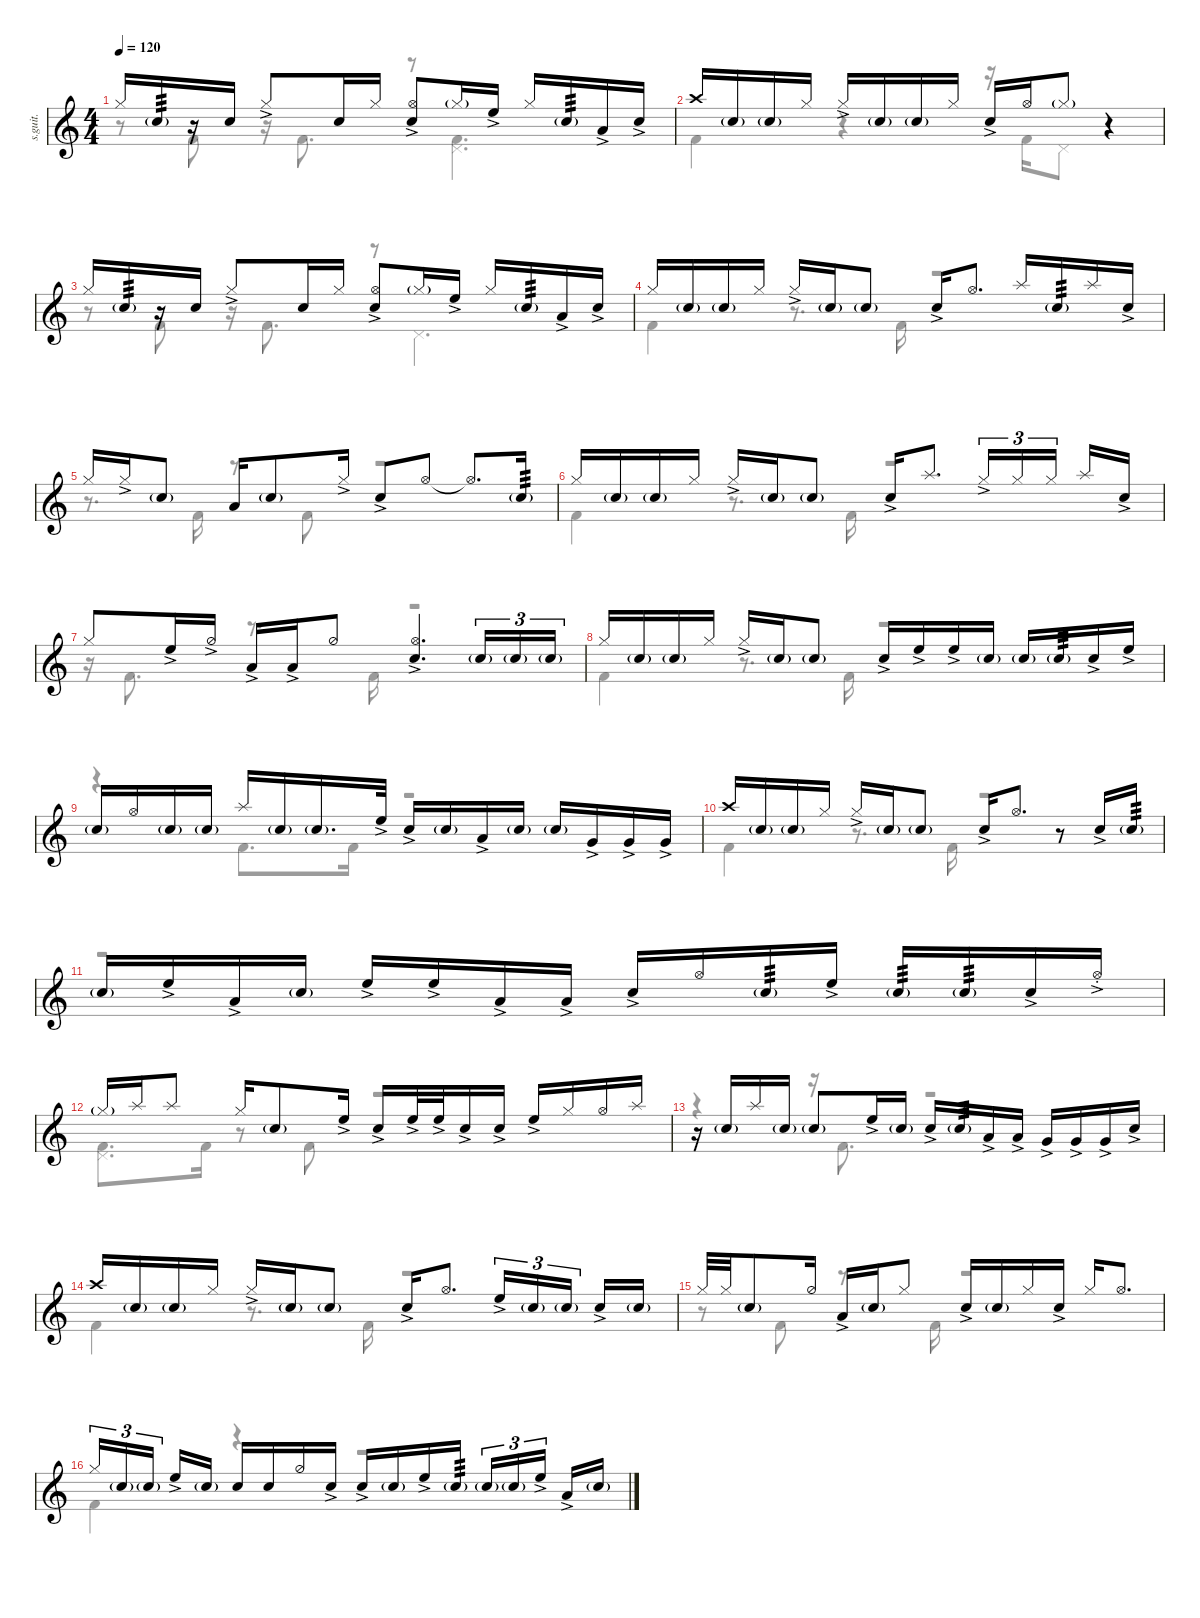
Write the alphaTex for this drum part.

\defaultSystemsLayout 4
\hideDynamics
\bracketExtendMode nobrackets
\track ("Matt Halpern" "s.guit.") {instrument percussion}
\staff {score}
\articulation defaults
\voice
\ts (4 4)
\tempo 120
\clef g2
\ks c "Hi-Hat (closed)".16{lyrics (0 "") lyrics (1 "") lyrics (2 "") lyrics (3 "") lyrics (4 "") dy mf} "Snare (hit) 2"{g}.16{lyrics (0 "") lyrics (1 "") lyrics (2 "") lyrics (3 "") lyrics (4 "") tp 3}
r.16 "Snare (hit) 2".16{lyrics (0 "") lyrics (1 "") lyrics (2 "") lyrics (3 "") lyrics (4 "")} "Hi-Hat (closed)"{ac}.8{lyrics (0 "") lyrics (1 "") lyrics (2 "") lyrics (3 "") lyrics (4 "")} "Snare (hit) 2".16{lyrics (0 "") lyrics (1 "") lyrics (2 "") lyrics (3 "") lyrics (4 "")} "Hi-Hat (closed)".16{lyrics (0 "") lyrics (1 "") lyrics (2 "") lyrics (3 "") lyrics (4 "")} ("Hi-Hat (open)" "Snare (hit) 2"{ac}).8{lyrics (0 "") lyrics (1 "") lyrics (2 "") lyrics (3 "") lyrics (4 "")} "Hi-Hat (closed)"{g}.16{lyrics (0 "") lyrics (1 "") lyrics (2 "") lyrics (3 "") lyrics (4 "")} "High Floor Tom (hit)"{ac}.16{lyrics (0 "") lyrics (1 "") lyrics (2 "") lyrics (3 "") lyrics (4 "")} "Hi-Hat (closed)".16{lyrics (0 "") lyrics (1 "") lyrics (2 "") lyrics (3 "") lyrics (4 "")} "Snare (hit) 2"{g}.16{lyrics (0 "") lyrics (1 "") lyrics (2 "") lyrics (3 "") lyrics (4 "") tp 3} "Low Tom (hit)"{ac}.16{lyrics (0 "") lyrics (1 "") lyrics (2 "") lyrics (3 "") lyrics (4 "")} "Snare (hit) 2"{ac}.16{lyrics (0 "") lyrics (1 "") lyrics (2 "") lyrics (3 "") lyrics (4 "")} |
"Crash high (hit)".16{lyrics (0 "") lyrics (1 "") lyrics (2 "") lyrics (3 "") lyrics (4 "")} "Snare (hit) 2"{g}.16{lyrics (0 "") lyrics (1 "") lyrics (2 "") lyrics (3 "") lyrics (4 "")} "Snare (hit) 2"{g}.16{lyrics (0 "") lyrics (1 "") lyrics (2 "") lyrics (3 "") lyrics (4 "")} "Hi-Hat (closed)".16{lyrics (0 "") lyrics (1 "") lyrics (2 "") lyrics (3 "") lyrics (4 "")} "Hi-Hat (closed)"{ac}.16{lyrics (0 "") lyrics (1 "") lyrics (2 "") lyrics (3 "") lyrics (4 "")} "Snare (hit) 2"{g}.16{lyrics (0 "") lyrics (1 "") lyrics (2 "") lyrics (3 "") lyrics (4 "")} "Snare (hit) 2"{g}.16{lyrics (0 "") lyrics (1 "") lyrics (2 "") lyrics (3 "") lyrics (4 "")} "Hi-Hat (closed)".16{lyrics (0 "") lyrics (1 "") lyrics (2 "") lyrics (3 "") lyrics (4 "")} "Snare (hit) 2"{ac}.16{lyrics (0 "") lyrics (1 "") lyrics (2 "") lyrics (3 "") lyrics (4 "")} "Hi-Hat (open)".16{lyrics (0 "") lyrics (1 "") lyrics (2 "") lyrics (3 "") lyrics (4 "")} "Hi-Hat (closed)"{g}.8{lyrics (0 "") lyrics (1 "") lyrics (2 "") lyrics (3 "") lyrics (4 "")} r.4 |
"Hi-Hat (closed)".16{lyrics (0 "") lyrics (1 "") lyrics (2 "") lyrics (3 "") lyrics (4 "")} "Snare (hit) 2"{g}.16{lyrics (0 "") lyrics (1 "") lyrics (2 "") lyrics (3 "") lyrics (4 "") tp 3} r.16 "Snare (hit) 2".16{lyrics (0 "") lyrics (1 "") lyrics (2 "") lyrics (3 "") lyrics (4 "")} "Hi-Hat (closed)"{ac}.8{lyrics (0 "") lyrics (1 "") lyrics (2 "") lyrics (3 "") lyrics (4 "")} "Snare (hit) 2".16{lyrics (0 "") lyrics (1 "") lyrics (2 "") lyrics (3 "") lyrics (4 "")} "Hi-Hat (closed)".16{lyrics (0 "") lyrics (1 "") lyrics (2 "") lyrics (3 "") lyrics (4 "")} ("Hi-Hat (open)" "Snare (hit) 2"{ac}).8{lyrics (0 "") lyrics (1 "") lyrics (2 "") lyrics (3 "") lyrics (4 "")} "Hi-Hat (closed)"{g}.16{lyrics (0 "") lyrics (1 "") lyrics (2 "") lyrics (3 "") lyrics (4 "")} "High Floor Tom (hit)"{ac}.16{lyrics (0 "") lyrics (1 "") lyrics (2 "") lyrics (3 "") lyrics (4 "")} "Hi-Hat (closed)".16{lyrics (0 "") lyrics (1 "") lyrics (2 "") lyrics (3 "") lyrics (4 "")} "Snare (hit) 2"{g}.16{lyrics (0 "") lyrics (1 "") lyrics (2 "") lyrics (3 "") lyrics (4 "") tp 3} "Low Tom (hit)"{ac}.16{lyrics (0 "") lyrics (1 "") lyrics (2 "") lyrics (3 "") lyrics (4 "")} "Snare (hit) 2"{ac}.16{lyrics (0 "") lyrics (1 "") lyrics (2 "") lyrics (3 "") lyrics (4 "")} |
"Hi-Hat (closed)".16{lyrics (0 "") lyrics (1 "") lyrics (2 "") lyrics (3 "") lyrics (4 "")} "Snare (hit) 2"{g}.16{lyrics (0 "") lyrics (1 "") lyrics (2 "") lyrics (3 "") lyrics (4 "")} "Snare (hit) 2"{g}.16{lyrics (0 "") lyrics (1 "") lyrics (2 "") lyrics (3 "") lyrics (4 "")} "Hi-Hat (closed)".16{lyrics (0 "") lyrics (1 "") lyrics (2 "") lyrics (3 "") lyrics (4 "")} "Hi-Hat (closed)"{ac}.16{lyrics (0 "") lyrics (1 "") lyrics (2 "") lyrics (3 "") lyrics (4 "")} "Snare (hit) 2"{g}.16{lyrics (0 "") lyrics (1 "") lyrics (2 "") lyrics (3 "") lyrics (4 "")} "Snare (hit) 2"{g}.8{lyrics (0 "") lyrics (1 "") lyrics (2 "") lyrics (3 "") lyrics (4 "")} "Snare (hit) 2"{ac}.16{lyrics (0 "") lyrics (1 "") lyrics (2 "") lyrics (3 "") lyrics (4 "")} "Hi-Hat (open)".8{d lyrics (0 "") lyrics (1 "") lyrics (2 "") lyrics (3 "") lyrics (4 "")} "Splash (hit)".16{lyrics (0 "") lyrics (1 "") lyrics (2 "") lyrics (3 "") lyrics (4 "")} "Snare (hit) 2"{g}.16{lyrics (0 "") lyrics (1 "") lyrics (2 "") lyrics (3 "") lyrics (4 "") tp 3} "Splash (hit)".16{lyrics (0 "") lyrics (1 "") lyrics (2 "") lyrics (3 "") lyrics (4 "")} "Snare (hit) 2"{ac}.16{lyrics (0 "") lyrics (1 "") lyrics (2 "") lyrics (3 "") lyrics (4 "")} |
"Hi-Hat (closed)".16{lyrics (0 "") lyrics (1 "") lyrics (2 "") lyrics (3 "") lyrics (4 "")} "Hi-Hat (closed)"{ac}.16{lyrics (0 "") lyrics (1 "") lyrics (2 "") lyrics (3 "") lyrics (4 "")} "Snare (hit) 2"{g}.8{lyrics (0 "") lyrics (1 "") lyrics (2 "") lyrics (3 "") lyrics (4 "")} "Low Tom (hit)".16{lyrics (0 "") lyrics (1 "") lyrics (2 "") lyrics (3 "") lyrics (4 "")} "Snare (hit) 2"{g}.8{lyrics (0 "") lyrics (1 "") lyrics (2 "") lyrics (3 "") lyrics (4 "")} "Hi-Hat (closed)"{ac}.16{lyrics (0 "") lyrics (1 "") lyrics (2 "") lyrics (3 "") lyrics (4 "")} "Snare (hit) 2"{ac}.8{lyrics (0 "") lyrics (1 "") lyrics (2 "") lyrics (3 "") lyrics (4 "")} "Hi-Hat (open)".8{lyrics (0 "") lyrics (1 "") lyrics (2 "") lyrics (3 "") lyrics (4 "")} "Hi-Hat (open)"{t}.8{d lyrics (0 "") lyrics (1 "") lyrics (2 "") lyrics (3 "") lyrics (4 "")} "Snare (hit) 2"{g}.16{lyrics (0 "") lyrics (1 "") lyrics (2 "") lyrics (3 "") lyrics (4 "") tp 3} |
"Hi-Hat (closed)".16{lyrics (0 "") lyrics (1 "") lyrics (2 "") lyrics (3 "") lyrics (4 "")} "Snare (hit) 2"{g}.16{lyrics (0 "") lyrics (1 "") lyrics (2 "") lyrics (3 "") lyrics (4 "")} "Snare (hit) 2"{g}.16{lyrics (0 "") lyrics (1 "") lyrics (2 "") lyrics (3 "") lyrics (4 "")} "Hi-Hat (closed)".16{lyrics (0 "") lyrics (1 "") lyrics (2 "") lyrics (3 "") lyrics (4 "")} "Hi-Hat (closed)"{ac}.16{lyrics (0 "") lyrics (1 "") lyrics (2 "") lyrics (3 "") lyrics (4 "")} "Snare (hit) 2"{g}.16{lyrics (0 "") lyrics (1 "") lyrics (2 "") lyrics (3 "") lyrics (4 "")} "Snare (hit) 2"{g}.8{lyrics (0 "") lyrics (1 "") lyrics (2 "") lyrics (3 "") lyrics (4 "")} "Snare (hit) 2"{ac}.16{lyrics (0 "") lyrics (1 "") lyrics (2 "") lyrics (3 "") lyrics (4 "")} "Splash (hit)".8{d lyrics (0 "") lyrics (1 "") lyrics (2 "") lyrics (3 "") lyrics (4 "")} "Hi-Hat (closed)"{ac}.16{tu (3 2) lyrics (0 "") lyrics (1 "") lyrics (2 "") lyrics (3 "") lyrics (4 "")} "Hi-Hat (closed)".16{tu (3 2) lyrics (0 "") lyrics (1 "") lyrics (2 "") lyrics (3 "") lyrics (4 "")} "Hi-Hat (closed)".16{tu (3 2) lyrics (0 "") lyrics (1 "") lyrics (2 "") lyrics (3 "") lyrics (4 "")} "Splash (hit)".16{lyrics (0 "") lyrics (1 "") lyrics (2 "") lyrics (3 "") lyrics (4 "")} "Snare (hit) 2"{ac}.16{lyrics (0 "") lyrics (1 "") lyrics (2 "") lyrics (3 "") lyrics (4 "")} |
"Hi-Hat (closed)".8{lyrics (0 "") lyrics (1 "") lyrics (2 "") lyrics (3 "") lyrics (4 "")} "High Floor Tom (hit)"{ac}.16{lyrics (0 "") lyrics (1 "") lyrics (2 "") lyrics (3 "") lyrics (4 "")} "Hi-Hat (half)"{ac}.16{lyrics (0 "") lyrics (1 "") lyrics (2 "") lyrics (3 "") lyrics (4 "")} "Low Tom (hit)"{ac}.16{lyrics (0 "") lyrics (1 "") lyrics (2 "") lyrics (3 "") lyrics (4 "")} "Low Tom (hit)"{ac}.16{lyrics (0 "") lyrics (1 "") lyrics (2 "") lyrics (3 "") lyrics (4 "")} "Hi-Hat (half)".8{lyrics (0 "") lyrics (1 "") lyrics (2 "") lyrics (3 "") lyrics (4 "")} ("Hi-Hat (open)" "Snare (hit) 2"{ac}).4{d lyrics (0 "") lyrics (1 "") lyrics (2 "") lyrics (3 "") lyrics (4 "")} "Snare (hit) 2"{g}.16{tu (3 2) lyrics (0 "") lyrics (1 "") lyrics (2 "") lyrics (3 "") lyrics (4 "")} "Snare (hit) 2"{g}.16{tu (3 2) lyrics (0 "") lyrics (1 "") lyrics (2 "") lyrics (3 "") lyrics (4 "")} "Snare (hit) 2"{g}.16{tu (3 2) lyrics (0 "") lyrics (1 "") lyrics (2 "") lyrics (3 "") lyrics (4 "")} |
"Hi-Hat (closed)".16{lyrics (0 "") lyrics (1 "") lyrics (2 "") lyrics (3 "") lyrics (4 "")} "Snare (hit) 2"{g}.16{lyrics (0 "") lyrics (1 "") lyrics (2 "") lyrics (3 "") lyrics (4 "")} "Snare (hit) 2"{g}.16{lyrics (0 "") lyrics (1 "") lyrics (2 "") lyrics (3 "") lyrics (4 "")} "Hi-Hat (closed)".16{lyrics (0 "") lyrics (1 "") lyrics (2 "") lyrics (3 "") lyrics (4 "")} "Hi-Hat (closed)"{ac}.16{lyrics (0 "") lyrics (1 "") lyrics (2 "") lyrics (3 "") lyrics (4 "")} "Snare (hit) 2"{g}.16{lyrics (0 "") lyrics (1 "") lyrics (2 "") lyrics (3 "") lyrics (4 "")} "Snare (hit) 2"{g}.8{lyrics (0 "") lyrics (1 "") lyrics (2 "") lyrics (3 "") lyrics (4 "")} "Snare (hit) 2"{ac}.16{lyrics (0 "") lyrics (1 "") lyrics (2 "") lyrics (3 "") lyrics (4 "")} "High Floor Tom (hit)"{ac}.16{lyrics (0 "") lyrics (1 "") lyrics (2 "") lyrics (3 "") lyrics (4 "")} "High Floor Tom (hit)"{ac}.16{lyrics (0 "") lyrics (1 "") lyrics (2 "") lyrics (3 "") lyrics (4 "")} "Snare (hit) 2"{g}.16{lyrics (0 "") lyrics (1 "") lyrics (2 "") lyrics (3 "") lyrics (4 "")} "Snare (hit) 2"{g}.16{lyrics (0 "") lyrics (1 "") lyrics (2 "") lyrics (3 "") lyrics (4 "")} "Snare (hit) 2"{g}.16{lyrics (0 "") lyrics (1 "") lyrics (2 "") lyrics (3 "") lyrics (4 "") tp 3} "Snare (hit) 2"{ac}.16{lyrics (0 "") lyrics (1 "") lyrics (2 "") lyrics (3 "") lyrics (4 "")} "High Floor Tom (hit)"{ac}.16{lyrics (0 "") lyrics (1 "") lyrics (2 "") lyrics (3 "") lyrics (4 "")} |
"Snare (hit) 2"{g}.16{lyrics (0 "") lyrics (1 "") lyrics (2 "") lyrics (3 "") lyrics (4 "")} "Hi-Hat (open)".16{lyrics (0 "") lyrics (1 "") lyrics (2 "") lyrics (3 "") lyrics (4 "")} "Snare (hit) 2"{g}.16{lyrics (0 "") lyrics (1 "") lyrics (2 "") lyrics (3 "") lyrics (4 "")} "Snare (hit) 2"{g}.16{lyrics (0 "") lyrics (1 "") lyrics (2 "") lyrics (3 "") lyrics (4 "")} "Splash (hit)".16{lyrics (0 "") lyrics (1 "") lyrics (2 "") lyrics (3 "") lyrics (4 "")} "Snare (hit) 2"{g}.16{lyrics (0 "") lyrics (1 "") lyrics (2 "") lyrics (3 "") lyrics (4 "")} "Snare (hit) 2"{g}.16{d lyrics (0 "") lyrics (1 "") lyrics (2 "") lyrics (3 "") lyrics (4 "")} "High Floor Tom (hit)"{ac}.32{lyrics (0 "") lyrics (1 "") lyrics (2 "") lyrics (3 "") lyrics (4 "")} "Snare (hit) 2"{ac}.16{lyrics (0 "") lyrics (1 "") lyrics (2 "") lyrics (3 "") lyrics (4 "")} "Snare (hit) 2"{g}.16{lyrics (0 "") lyrics (1 "") lyrics (2 "") lyrics (3 "") lyrics (4 "")} "Low Tom (hit)"{ac}.16{lyrics (0 "") lyrics (1 "") lyrics (2 "") lyrics (3 "") lyrics (4 "")} "Snare (hit) 2"{g}.16{lyrics (0 "") lyrics (1 "") lyrics (2 "") lyrics (3 "") lyrics (4 "")} "Snare (hit) 2"{g}.16{lyrics (0 "") lyrics (1 "") lyrics (2 "") lyrics (3 "") lyrics (4 "")} "Very Low Tom (hit)"{ac}.16{lyrics (0 "") lyrics (1 "") lyrics (2 "") lyrics (3 "") lyrics (4 "")} "Very Low Tom (hit)"{ac}.16{lyrics (0 "") lyrics (1 "") lyrics (2 "") lyrics (3 "") lyrics (4 "")} "Very Low Tom (hit)"{ac}.16{lyrics (0 "") lyrics (1 "") lyrics (2 "") lyrics (3 "") lyrics (4 "")} |
"Crash high (hit)".16{lyrics (0 "") lyrics (1 "") lyrics (2 "") lyrics (3 "") lyrics (4 "")} "Snare (hit) 2"{g}.16{lyrics (0 "") lyrics (1 "") lyrics (2 "") lyrics (3 "") lyrics (4 "")} "Snare (hit) 2"{g}.16{lyrics (0 "") lyrics (1 "") lyrics (2 "") lyrics (3 "") lyrics (4 "")} "Hi-Hat (closed)".16{lyrics (0 "") lyrics (1 "") lyrics (2 "") lyrics (3 "") lyrics (4 "")} "Hi-Hat (closed)"{ac}.16{lyrics (0 "") lyrics (1 "") lyrics (2 "") lyrics (3 "") lyrics (4 "")} "Snare (hit) 2"{g}.16{lyrics (0 "") lyrics (1 "") lyrics (2 "") lyrics (3 "") lyrics (4 "")} "Snare (hit) 2"{g}.8{lyrics (0 "") lyrics (1 "") lyrics (2 "") lyrics (3 "") lyrics (4 "")} "Snare (hit) 2"{ac}.16{lyrics (0 "") lyrics (1 "") lyrics (2 "") lyrics (3 "") lyrics (4 "")} "Hi-Hat (open)".8{d lyrics (0 "") lyrics (1 "") lyrics (2 "") lyrics (3 "") lyrics (4 "")} r.8 "Snare (hit) 2"{ac}.16{lyrics (0 "") lyrics (1 "") lyrics (2 "") lyrics (3 "") lyrics (4 "")} "Snare (hit) 2"{g}.16{lyrics (0 "") lyrics (1 "") lyrics (2 "") lyrics (3 "") lyrics (4 "") tp 3} |
"Snare (hit) 2"{g}.16{lyrics (0 "") lyrics (1 "") lyrics (2 "") lyrics (3 "") lyrics (4 "")} "High Floor Tom (hit)"{ac}.16{lyrics (0 "") lyrics (1 "") lyrics (2 "") lyrics (3 "") lyrics (4 "")} "Low Tom (hit)"{ac}.16{lyrics (0 "") lyrics (1 "") lyrics (2 "") lyrics (3 "") lyrics (4 "")} "Snare (hit) 2"{g}.16{lyrics (0 "") lyrics (1 "") lyrics (2 "") lyrics (3 "") lyrics (4 "")} "High Floor Tom (hit)"{ac}.16{lyrics (0 "") lyrics (1 "") lyrics (2 "") lyrics (3 "") lyrics (4 "")} "High Floor Tom (hit)"{ac}.16{lyrics (0 "") lyrics (1 "") lyrics (2 "") lyrics (3 "") lyrics (4 "")} "Low Tom (hit)"{ac}.16{lyrics (0 "") lyrics (1 "") lyrics (2 "") lyrics (3 "") lyrics (4 "")} "Low Tom (hit)"{ac}.16{lyrics (0 "") lyrics (1 "") lyrics (2 "") lyrics (3 "") lyrics (4 "")} "Snare (hit) 2"{ac}.16{lyrics (0 "") lyrics (1 "") lyrics (2 "") lyrics (3 "") lyrics (4 "")} "Hi-Hat (open)".16{lyrics (0 "") lyrics (1 "") lyrics (2 "") lyrics (3 "") lyrics (4 "")} "Snare (hit) 2"{g}.16{lyrics (0 "") lyrics (1 "") lyrics (2 "") lyrics (3 "") lyrics (4 "") tp 3} "High Floor Tom (hit)"{ac}.16{lyrics (0 "") lyrics (1 "") lyrics (2 "") lyrics (3 "") lyrics (4 "")} "Snare (hit) 2"{g}.16{lyrics (0 "") lyrics (1 "") lyrics (2 "") lyrics (3 "") lyrics (4 "") tp 3} "Snare (hit) 2"{g}.16{lyrics (0 "") lyrics (1 "") lyrics (2 "") lyrics (3 "") lyrics (4 "") tp 3} "Snare (hit) 2"{ac}.16{lyrics (0 "") lyrics (1 "") lyrics (2 "") lyrics (3 "") lyrics (4 "")} "Hi-Hat (open)"{ac st}.16{lyrics (0 "") lyrics (1 "") lyrics (2 "") lyrics (3 "") lyrics (4 "")} |
"Hi-Hat (closed)"{g}.16{lyrics (0 "") lyrics (1 "") lyrics (2 "") lyrics (3 "") lyrics (4 "")} "Splash (hit)".16{lyrics (0 "") lyrics (1 "") lyrics (2 "") lyrics (3 "") lyrics (4 "")} "Splash (hit)".8{lyrics (0 "") lyrics (1 "") lyrics (2 "") lyrics (3 "") lyrics (4 "")} "Hi-Hat (closed)".16{lyrics (0 "") lyrics (1 "") lyrics (2 "") lyrics (3 "") lyrics (4 "")} "Snare (hit) 2"{g}.8{lyrics (0 "") lyrics (1 "") lyrics (2 "") lyrics (3 "") lyrics (4 "")} "High Floor Tom (hit)"{ac}.16{lyrics (0 "") lyrics (1 "") lyrics (2 "") lyrics (3 "") lyrics (4 "")} "Snare (hit) 2"{ac}.16{lyrics (0 "") lyrics (1 "") lyrics (2 "") lyrics (3 "") lyrics (4 "")} "High Floor Tom (hit)"{ac}.32{lyrics (0 "") lyrics (1 "") lyrics (2 "") lyrics (3 "") lyrics (4 "")} "High Floor Tom (hit)"{ac}.32{lyrics (0 "") lyrics (1 "") lyrics (2 "") lyrics (3 "") lyrics (4 "")} "Snare (hit) 2"{ac}.16{lyrics (0 "") lyrics (1 "") lyrics (2 "") lyrics (3 "") lyrics (4 "")} "Snare (hit) 2"{ac}.16{lyrics (0 "") lyrics (1 "") lyrics (2 "") lyrics (3 "") lyrics (4 "")} "High Floor Tom (hit)"{ac}.16{lyrics (0 "") lyrics (1 "") lyrics (2 "") lyrics (3 "") lyrics (4 "")} "Hi-Hat (closed)".16{lyrics (0 "") lyrics (1 "") lyrics (2 "") lyrics (3 "") lyrics (4 "")} "Hi-Hat (open)".16{lyrics (0 "") lyrics (1 "") lyrics (2 "") lyrics (3 "") lyrics (4 "")} "Splash (hit)".16{lyrics (0 "") lyrics (1 "") lyrics (2 "") lyrics (3 "") lyrics (4 "")} |
r.16 "Snare (hit) 2"{g}.16{lyrics (0 "") lyrics (1 "") lyrics (2 "") lyrics (3 "") lyrics (4 "")} "Splash (hit)".16{lyrics (0 "") lyrics (1 "") lyrics (2 "") lyrics (3 "") lyrics (4 "")} "Snare (hit) 2"{g}.16{lyrics (0 "") lyrics (1 "") lyrics (2 "") lyrics (3 "") lyrics (4 "")} "Snare (hit) 2"{g}.8{lyrics (0 "") lyrics (1 "") lyrics (2 "") lyrics (3 "") lyrics (4 "")} "High Floor Tom (hit)"{ac}.16{lyrics (0 "") lyrics (1 "") lyrics (2 "") lyrics (3 "") lyrics (4 "")} "Snare (hit) 2"{g}.16{lyrics (0 "") lyrics (1 "") lyrics (2 "") lyrics (3 "") lyrics (4 "")} "Snare (hit) 2"{ac}.16{lyrics (0 "") lyrics (1 "") lyrics (2 "") lyrics (3 "") lyrics (4 "")} "Snare (hit) 2"{g}.16{lyrics (0 "") lyrics (1 "") lyrics (2 "") lyrics (3 "") lyrics (4 "") tp 3} "Low Tom (hit)"{ac}.16{lyrics (0 "") lyrics (1 "") lyrics (2 "") lyrics (3 "") lyrics (4 "")} "Low Tom (hit)"{ac}.16{lyrics (0 "") lyrics (1 "") lyrics (2 "") lyrics (3 "") lyrics (4 "")} "Very Low Tom (hit)"{ac}.16{lyrics (0 "") lyrics (1 "") lyrics (2 "") lyrics (3 "") lyrics (4 "")} "Very Low Tom (hit)"{ac}.16{lyrics (0 "") lyrics (1 "") lyrics (2 "") lyrics (3 "") lyrics (4 "")} "Very Low Tom (hit)"{ac}.16{lyrics (0 "") lyrics (1 "") lyrics (2 "") lyrics (3 "") lyrics (4 "")} "Snare (hit) 2"{ac}.16{lyrics (0 "") lyrics (1 "") lyrics (2 "") lyrics (3 "") lyrics (4 "")} |
"Crash high (hit)".16{lyrics (0 "") lyrics (1 "") lyrics (2 "") lyrics (3 "") lyrics (4 "")} "Snare (hit) 2"{g}.16{lyrics (0 "") lyrics (1 "") lyrics (2 "") lyrics (3 "") lyrics (4 "")} "Snare (hit) 2"{g}.16{lyrics (0 "") lyrics (1 "") lyrics (2 "") lyrics (3 "") lyrics (4 "")} "Hi-Hat (closed)".16{lyrics (0 "") lyrics (1 "") lyrics (2 "") lyrics (3 "") lyrics (4 "")} "Hi-Hat (closed)"{ac}.16{lyrics (0 "") lyrics (1 "") lyrics (2 "") lyrics (3 "") lyrics (4 "")} "Snare (hit) 2"{g}.16{lyrics (0 "") lyrics (1 "") lyrics (2 "") lyrics (3 "") lyrics (4 "")} "Snare (hit) 2"{g}.8{lyrics (0 "") lyrics (1 "") lyrics (2 "") lyrics (3 "") lyrics (4 "")} "Snare (hit) 2"{ac}.16{lyrics (0 "") lyrics (1 "") lyrics (2 "") lyrics (3 "") lyrics (4 "")} "Hi-Hat (open)".8{d lyrics (0 "") lyrics (1 "") lyrics (2 "") lyrics (3 "") lyrics (4 "")} "High Floor Tom (hit)"{ac}.16{tu (3 2) lyrics (0 "") lyrics (1 "") lyrics (2 "") lyrics (3 "") lyrics (4 "")} "Snare (hit) 2"{g}.16{tu (3 2) lyrics (0 "") lyrics (1 "") lyrics (2 "") lyrics (3 "") lyrics (4 "")} "Snare (hit) 2"{g}.16{tu (3 2) lyrics (0 "") lyrics (1 "") lyrics (2 "") lyrics (3 "") lyrics (4 "")} "Snare (hit) 2"{ac}.16{lyrics (0 "") lyrics (1 "") lyrics (2 "") lyrics (3 "") lyrics (4 "")} "Snare (hit) 2"{g}.16{lyrics (0 "") lyrics (1 "") lyrics (2 "") lyrics (3 "") lyrics (4 "")} |
"Hi-Hat (closed)".32{lyrics (0 "") lyrics (1 "") lyrics (2 "") lyrics (3 "") lyrics (4 "")} "Hi-Hat (closed)".32{lyrics (0 "") lyrics (1 "") lyrics (2 "") lyrics (3 "") lyrics (4 "")} "Snare (hit) 2"{g}.8{lyrics (0 "") lyrics (1 "") lyrics (2 "") lyrics (3 "") lyrics (4 "")} "Hi-Hat (half)".16{lyrics (0 "") lyrics (1 "") lyrics (2 "") lyrics (3 "") lyrics (4 "")} "Low Tom (hit)"{ac}.16{lyrics (0 "") lyrics (1 "") lyrics (2 "") lyrics (3 "") lyrics (4 "")} "Snare (hit) 2"{g}.16{lyrics (0 "") lyrics (1 "") lyrics (2 "") lyrics (3 "") lyrics (4 "")} "Hi-Hat (closed)".8{lyrics (0 "") lyrics (1 "") lyrics (2 "") lyrics (3 "") lyrics (4 "")} "Snare (hit) 2"{ac}.16{lyrics (0 "") lyrics (1 "") lyrics (2 "") lyrics (3 "") lyrics (4 "")} "Snare (hit) 2"{g}.16{lyrics (0 "") lyrics (1 "") lyrics (2 "") lyrics (3 "") lyrics (4 "")} "Hi-Hat (closed)".16{lyrics (0 "") lyrics (1 "") lyrics (2 "") lyrics (3 "") lyrics (4 "")} "Snare (hit) 2"{ac}.16{lyrics (0 "") lyrics (1 "") lyrics (2 "") lyrics (3 "") lyrics (4 "")} "Hi-Hat (closed)".16{lyrics (0 "") lyrics (1 "") lyrics (2 "") lyrics (3 "") lyrics (4 "")} "Hi-Hat (open)".8{d lyrics (0 "") lyrics (1 "") lyrics (2 "") lyrics (3 "") lyrics (4 "")} |
"Hi-Hat (closed)".16{tu (3 2) lyrics (0 "") lyrics (1 "") lyrics (2 "") lyrics (3 "") lyrics (4 "")} "Snare (hit) 2"{g}.16{tu (3 2) lyrics (0 "") lyrics (1 "") lyrics (2 "") lyrics (3 "") lyrics (4 "")} "Snare (hit) 2"{g}.16{tu (3 2) lyrics (0 "") lyrics (1 "") lyrics (2 "") lyrics (3 "") lyrics (4 "")} "High Floor Tom (hit)"{ac}.16{lyrics (0 "") lyrics (1 "") lyrics (2 "") lyrics (3 "") lyrics (4 "")} "Snare (hit) 2"{g}.16{lyrics (0 "") lyrics (1 "") lyrics (2 "") lyrics (3 "") lyrics (4 "")} "Snare (hit) 2".16{lyrics (0 "") lyrics (1 "") lyrics (2 "") lyrics (3 "") lyrics (4 "")} "Snare (hit) 2".16{lyrics (0 "") lyrics (1 "") lyrics (2 "") lyrics (3 "") lyrics (4 "")} "Hi-Hat (half)".16{lyrics (0 "") lyrics (1 "") lyrics (2 "") lyrics (3 "") lyrics (4 "")} "Snare (hit) 2"{ac}.16{lyrics (0 "") lyrics (1 "") lyrics (2 "") lyrics (3 "") lyrics (4 "")} "Snare (hit) 2"{ac}.16{lyrics (0 "") lyrics (1 "") lyrics (2 "") lyrics (3 "") lyrics (4 "")} "Snare (hit) 2"{g}.16{lyrics (0 "") lyrics (1 "") lyrics (2 "") lyrics (3 "") lyrics (4 "")} "High Floor Tom (hit)"{ac}.16{lyrics (0 "") lyrics (1 "") lyrics (2 "") lyrics (3 "") lyrics (4 "")} "Snare (hit) 2"{g}.16{lyrics (0 "") lyrics (1 "") lyrics (2 "") lyrics (3 "") lyrics (4 "") tp 3} "Snare (hit) 2"{g}.16{tu (3 2) lyrics (0 "") lyrics (1 "") lyrics (2 "") lyrics (3 "") lyrics (4 "")} "Snare (hit) 2"{g}.16{tu (3 2) lyrics (0 "") lyrics (1 "") lyrics (2 "") lyrics (3 "") lyrics (4 "")} "High Floor Tom (hit)"{ac}.16{tu (3 2) lyrics (0 "") lyrics (1 "") lyrics (2 "") lyrics (3 "") lyrics (4 "")} "Low Tom (hit)"{ac}.16{lyrics (0 "") lyrics (1 "") lyrics (2 "") lyrics (3 "") lyrics (4 "")} "Snare (hit) 2"{g}.16{lyrics (0 "") lyrics (1 "") lyrics (2 "") lyrics (3 "") lyrics (4 "")}
\voice
\clef g2
\ottava regular
\simile none
\ks c
r.8{dy mf} "Kick (hit) 2".8{lyrics (0 "") lyrics (1 "") lyrics (2 "") lyrics (3 "") lyrics (4 "")} r.16 "Kick (hit) 2".8{d lyrics (0 "") lyrics (1 "") lyrics (2 "") lyrics (3 "") lyrics (4 "")} r.8 ("Pedal Hi-Hat (hit)" "Kick (hit) 2").4{d lyrics (0 "") lyrics (1 "") lyrics (2 "") lyrics (3 "") lyrics (4 "")} |
"Kick (hit) 2".4{lyrics (0 "") lyrics (1 "") lyrics (2 "") lyrics (3 "") lyrics (4 "")} r.4 r.16 "Kick (hit) 2".16{lyrics (0 "") lyrics (1 "") lyrics (2 "") lyrics (3 "") lyrics (4 "")} "Pedal Hi-Hat (hit)".8{lyrics (0 "") lyrics (1 "") lyrics (2 "") lyrics (3 "") lyrics (4 "")} r.4 |
r.8 "Kick (hit) 2".8{lyrics (0 "") lyrics (1 "") lyrics (2 "") lyrics (3 "") lyrics (4 "")} r.16 "Kick (hit) 2".8{d lyrics (0 "") lyrics (1 "") lyrics (2 "") lyrics (3 "") lyrics (4 "")} r.8 "Pedal Hi-Hat (hit)".4{d lyrics (0 "") lyrics (1 "") lyrics (2 "") lyrics (3 "") lyrics (4 "")} |
"Kick (hit) 2".4{lyrics (0 "") lyrics (1 "") lyrics (2 "") lyrics (3 "") lyrics (4 "")} r.8{d} "Kick (hit) 2".16{lyrics (0 "") lyrics (1 "") lyrics (2 "") lyrics (3 "") lyrics (4 "")} r.2 |
r.8{d} "Kick (hit) 2".16{lyrics (0 "") lyrics (1 "") lyrics (2 "") lyrics (3 "") lyrics (4 "")} r.8 "Kick (hit) 2".8{lyrics (0 "") lyrics (1 "") lyrics (2 "") lyrics (3 "") lyrics (4 "")} r.2 |
"Kick (hit) 2".4{lyrics (0 "") lyrics (1 "") lyrics (2 "") lyrics (3 "") lyrics (4 "")} r.8{d} "Kick (hit) 2".16{lyrics (0 "") lyrics (1 "") lyrics (2 "") lyrics (3 "") lyrics (4 "")} r.2 |
r.16 "Kick (hit) 2".8{d lyrics (0 "") lyrics (1 "") lyrics (2 "") lyrics (3 "") lyrics (4 "")} r.8{d} "Kick (hit) 2".16{lyrics (0 "") lyrics (1 "") lyrics (2 "") lyrics (3 "") lyrics (4 "")} r.2 |
"Kick (hit) 2".4{lyrics (0 "") lyrics (1 "") lyrics (2 "") lyrics (3 "") lyrics (4 "")} r.8{d} "Kick (hit) 2".16{lyrics (0 "") lyrics (1 "") lyrics (2 "") lyrics (3 "") lyrics (4 "")} r.2 |
r.4 "Kick (hit) 2".8{d lyrics (0 "") lyrics (1 "") lyrics (2 "") lyrics (3 "") lyrics (4 "")} "Kick (hit) 2".16{lyrics (0 "") lyrics (1 "") lyrics (2 "") lyrics (3 "") lyrics (4 "")} r.2 |
"Kick (hit) 2".4{lyrics (0 "") lyrics (1 "") lyrics (2 "") lyrics (3 "") lyrics (4 "")} r.8{d} "Kick (hit) 2".16{lyrics (0 "") lyrics (1 "") lyrics (2 "") lyrics (3 "") lyrics (4 "")} r.2 |
r.1 |
("Kick (hit) 2" "Pedal Hi-Hat (hit)").8{d lyrics (0 "") lyrics (1 "") lyrics (2 "") lyrics (3 "") lyrics (4 "")} "Kick (hit) 2".16{lyrics (0 "") lyrics (1 "") lyrics (2 "") lyrics (3 "") lyrics (4 "")} r.8 "Kick (hit) 2".8{lyrics (0 "") lyrics (1 "") lyrics (2 "") lyrics (3 "") lyrics (4 "")} r.2 |
r.4 r.16 "Kick (hit) 2".8{d lyrics (0 "") lyrics (1 "") lyrics (2 "") lyrics (3 "") lyrics (4 "")} r.2 |
"Kick (hit) 2".4{lyrics (0 "") lyrics (1 "") lyrics (2 "") lyrics (3 "") lyrics (4 "")} r.8{d} "Kick (hit) 2".16{lyrics (0 "") lyrics (1 "") lyrics (2 "") lyrics (3 "") lyrics (4 "")} r.2 |
r.8 "Kick (hit) 2".8{lyrics (0 "") lyrics (1 "") lyrics (2 "") lyrics (3 "") lyrics (4 "")} r.8{d} "Kick (hit) 2".16{lyrics (0 "") lyrics (1 "") lyrics (2 "") lyrics (3 "") lyrics (4 "")} r.2 |
"Kick (hit) 2".4{lyrics (0 "") lyrics (1 "") lyrics (2 "") lyrics (3 "") lyrics (4 "")} r.4 r.2
